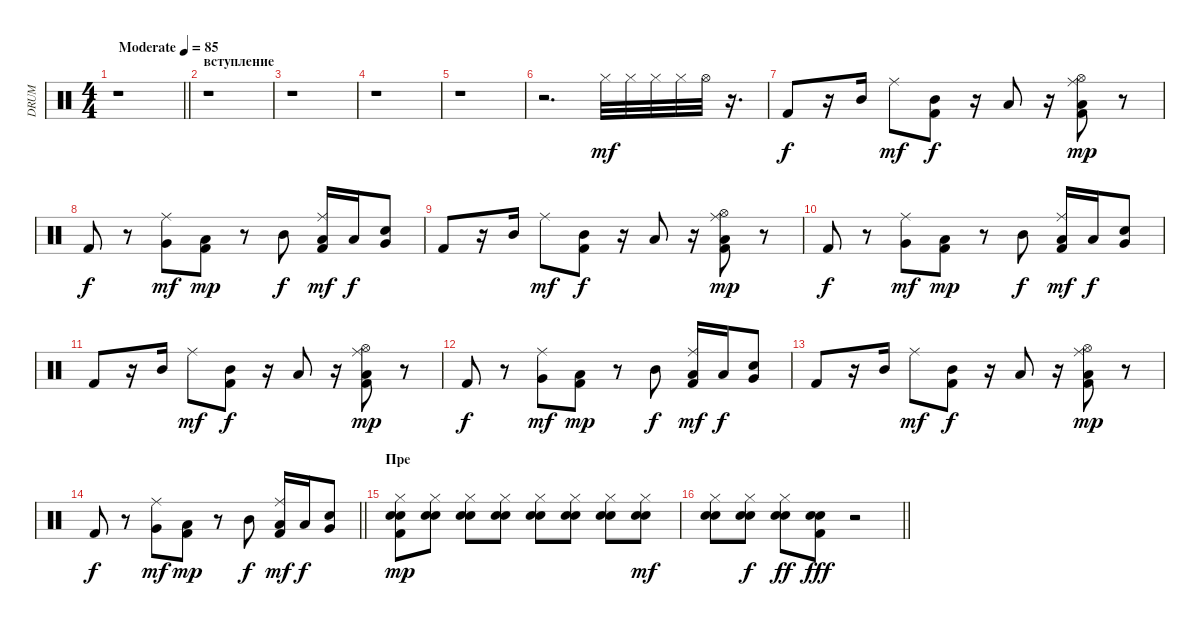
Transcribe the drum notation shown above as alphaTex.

\track ("DRUM" "DRUM") {instrument percussion}
\staff {score}
\articulation defaults
\ts (4 4)
\tempo (85 "Moderate")
\clef neutral
\barLineRight lightlight
\ks c
r.1{dy mf} |
\section ("" "вступление")
r.1 |
r.1 |
r.1 |
r.1 |
r.2{d} "Hi-Hat (closed)".32 "Hi-Hat (closed)".32 "Hi-Hat (closed)".32 "Hi-Hat (closed)".32 "Hi-Hat (open)".32 r.16{d} |
"Kick (hit) 2".8{dy f} r.16 "Mid Tom (hit)".16 "Ride (middle)".8{dy mf} ("Mid Tom (hit)" "Kick (hit) 2").8{dy f} r.16 "Low Tom (hit)".8 r.16 ("Ride (middle)" "Hi-Hat (open)" "Kick (hit) 2" "Low Floor Tom (hit)").8{dy mp} r.8 |
"Kick (hit) 2".8{dy f} r.8 ("Ride (middle)" "Very Low Tom (hit)").8{dy mf} ("Low Floor Tom (hit)" "Kick (hit) 2").8{dy mp} r.8 "Mid Tom (hit)".8{dy f} ("Ride (middle)" "Low Tom (hit)" "Kick (hit) 2").16{dy mf} "Low Tom (hit)".16{dy f} ("Snare (hit) 2" "Very Low Tom (hit)").8 |
"Kick (hit) 2".8 r.16 "Mid Tom (hit)".16 "Ride (middle)".8{dy mf} ("Mid Tom (hit)" "Kick (hit) 2").8{dy f} r.16 "Low Tom (hit)".8 r.16 ("Ride (middle)" "Hi-Hat (open)" "Kick (hit) 2" "Low Floor Tom (hit)").8{dy mp} r.8 |
"Kick (hit) 2".8{dy f} r.8 ("Ride (middle)" "Very Low Tom (hit)").8{dy mf} ("Low Floor Tom (hit)" "Kick (hit) 2").8{dy mp} r.8 "Mid Tom (hit)".8{dy f} ("Ride (middle)" "Low Tom (hit)" "Kick (hit) 2").16{dy mf} "Low Tom (hit)".16{dy f} ("Snare (hit) 2" "Very Low Tom (hit)").8 |
"Kick (hit) 2".8 r.16 "Mid Tom (hit)".16 "Ride (middle)".8{dy mf} ("Mid Tom (hit)" "Kick (hit) 2").8{dy f} r.16 "Low Tom (hit)".8 r.16 ("Ride (middle)" "Hi-Hat (open)" "Kick (hit) 2" "Low Floor Tom (hit)").8{dy mp} r.8 |
"Kick (hit) 2".8{dy f} r.8 ("Ride (middle)" "Very Low Tom (hit)").8{dy mf} ("Low Floor Tom (hit)" "Kick (hit) 2").8{dy mp} r.8 "Mid Tom (hit)".8{dy f} ("Ride (middle)" "Low Tom (hit)" "Kick (hit) 2").16{dy mf} "Low Tom (hit)".16{dy f} ("Snare (hit) 2" "Very Low Tom (hit)").8 |
"Kick (hit) 2".8 r.16 "Mid Tom (hit)".16 "Ride (middle)".8{dy mf} ("Mid Tom (hit)" "Kick (hit) 2").8{dy f} r.16 "Low Tom (hit)".8 r.16 ("Ride (middle)" "Hi-Hat (open)" "Kick (hit) 2" "Low Floor Tom (hit)").8{dy mp} r.8 |
\barLineRight lightlight "Kick (hit) 2".8{dy f}
r.8 ("Ride (middle)" "Very Low Tom (hit)").8{dy mf} ("Low Floor Tom (hit)" "Kick (hit) 2").8{dy mp} r.8 "Mid Tom (hit)".8{dy f} ("Ride (middle)" "Low Tom (hit)" "Kick (hit) 2").16{dy mf} "Low Tom (hit)".16{dy f} ("Snare (hit) 2" "Very Low Tom (hit)").8 |
\section ("" "Пре")
("Kick (hit) 2" "Electric Snare (hit)" "Hi-Hat (closed)" "Snare (hit) 2").8{dy mp} ("Electric Snare (hit)" "Hi-Hat (closed)" "Snare (hit) 2").8 ("Electric Snare (hit)" "Hi-Hat (closed)" "Snare (hit) 2").8 ("Electric Snare (hit)" "Hi-Hat (closed)" "Snare (hit) 2").8 ("Electric Snare (hit)" "Hi-Hat (closed)" "Snare (hit) 2").8 ("Electric Snare (hit)" "Hi-Hat (closed)" "Snare (hit) 2").8 ("Electric Snare (hit)" "Hi-Hat (closed)" "Snare (hit) 2").8 ("Electric Snare (hit)" "Hi-Hat (closed)" "Snare (hit) 2").8{dy mf} |
\barLineRight lightlight
("Electric Snare (hit)" "Hi-Hat (closed)" "Snare (hit) 2").8 ("Electric Snare (hit)" "Hi-Hat (closed)" "Snare (hit) 2").8{dy f} ("Electric Snare (hit)" "Hi-Hat (closed)" "Snare (hit) 2").8{dy ff} ("Electric Snare (hit)" "Kick (hit) 2" "Snare (hit) 2").8{dy fff} r.2
